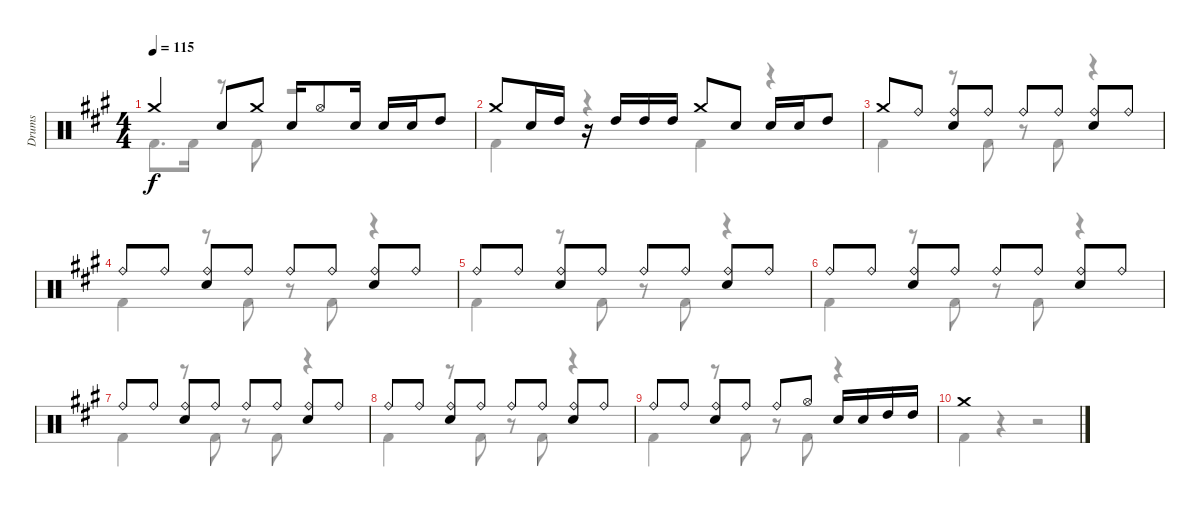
\track ("Drums" "Drums") {instrument percussion}
\staff {score}
\articulation defaults
\voice
\ts (4 4)
\tempo 115
\clef neutral
\ks a "Crash medium (hit)".4{dy f} "Electric Snare (hit)".8 "Crash medium (hit)".8 "Electric Snare (hit)".16 "Hi-Hat (open)".8 "Electric Snare (hit)".16 "Electric Snare (hit)".16 "Electric Snare (hit)".16 "High Tom (hit)".8
|
"Crash medium (hit)".8 "Electric Snare (hit)".16 "High Tom (hit)".16 r.16 "High Tom (hit)".16 "High Tom (hit)".16 "High Tom (hit)".16 "Crash medium (hit)".8 "Electric Snare (hit)".8 "Electric Snare (hit)".16 "Electric Snare (hit)".16 "High Tom (hit)".8 |
"Crash medium (hit)".8 "Ride (bell)".8 ("Ride (bell)" "Electric Snare (hit)").8 "Ride (bell)".8 "Ride (bell)".8 "Ride (bell)".8 ("Ride (bell)" "Electric Snare (hit)").8 "Ride (bell)".8 |
"Ride (bell)".8 "Ride (bell)".8 ("Ride (bell)" "Electric Snare (hit)").8 "Ride (bell)".8 "Ride (bell)".8 "Ride (bell)".8 ("Ride (bell)" "Electric Snare (hit)").8 "Ride (bell)".8 |
"Ride (bell)".8 "Ride (bell)".8 ("Ride (bell)" "Electric Snare (hit)").8 "Ride (bell)".8 "Ride (bell)".8 "Ride (bell)".8 ("Ride (bell)" "Electric Snare (hit)").8 "Ride (bell)".8 |
"Ride (bell)".8 "Ride (bell)".8 ("Ride (bell)" "Electric Snare (hit)").8 "Ride (bell)".8 "Ride (bell)".8 "Ride (bell)".8 ("Ride (bell)" "Electric Snare (hit)").8 "Ride (bell)".8 |
"Ride (bell)".8 "Ride (bell)".8 ("Ride (bell)" "Electric Snare (hit)").8 "Ride (bell)".8 "Ride (bell)".8 "Ride (bell)".8 ("Ride (bell)" "Electric Snare (hit)").8 "Ride (bell)".8 |
"Ride (bell)".8 "Ride (bell)".8 ("Ride (bell)" "Electric Snare (hit)").8 "Ride (bell)".8 "Ride (bell)".8 "Ride (bell)".8 ("Ride (bell)" "Electric Snare (hit)").8 "Ride (bell)".8 |
"Ride (bell)".8 "Ride (bell)".8 ("Ride (bell)" "Electric Snare (hit)").8 "Ride (bell)".8 "Ride (bell)".8 "Hi-Hat (open)".8 "Electric Snare (hit)".16 "Electric Snare (hit)".16 "High Tom (hit)".16 "High Tom (hit)".16 |
"Crash medium (hit)".1 |
|
|
|
|
|
\voice
\clef neutral
\ottava regular
\simile none
\ks a "Kick (hit) 2".8{d dy f} "Kick (hit) 2".16
r.8 "Kick (hit) 2".8 r.2 |
"Kick (hit) 2".4 r.4 "Kick (hit) 2".4 r.4 |
"Kick (hit) 2".4 r.8 "Kick (hit) 2".8 r.8 "Kick (hit) 2".8 r.4 |
"Kick (hit) 2".4 r.8 "Kick (hit) 2".8 r.8 "Kick (hit) 2".8 r.4 |
"Kick (hit) 2".4 r.8 "Kick (hit) 2".8 r.8 "Kick (hit) 2".8 r.4 |
"Kick (hit) 2".4 r.8 "Kick (hit) 2".8 r.8 "Kick (hit) 2".8 r.4 |
"Kick (hit) 2".4 r.8 "Kick (hit) 2".8 r.8 "Kick (hit) 2".8 r.4 |
"Kick (hit) 2".4 r.8 "Kick (hit) 2".8 r.8 "Kick (hit) 2".8 r.4 |
"Kick (hit) 2".4 r.8 "Kick (hit) 2".8 r.8 "Kick (hit) 2".8 r.4 |
"Kick (hit) 2".4 r.4 r.2 |
|
|
|
|
|
